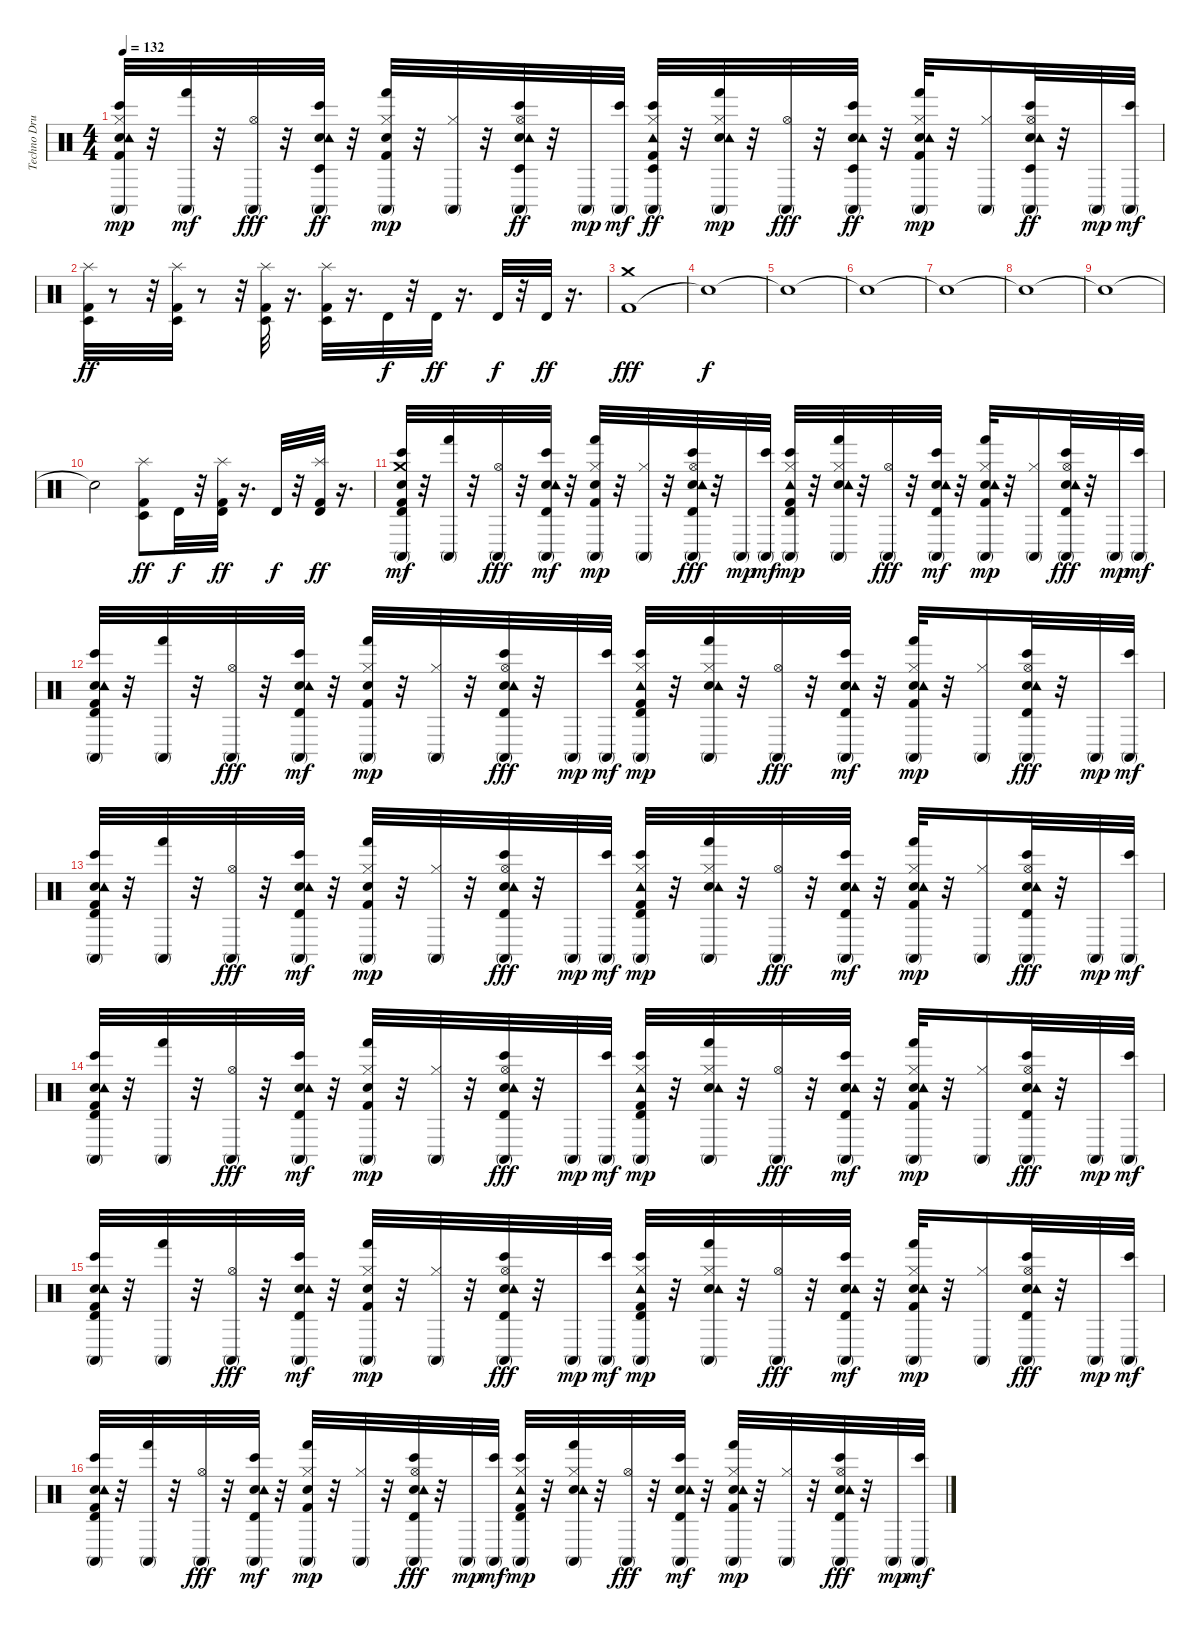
\track ("Techno Drums" "Techno Dru") {instrument percussion}
\staff {score}
\articulation defaults
\ts (4 4)
\tempo 132
\clef neutral
\ks c
("Kick (hit) 2" "Hand Clap (hit)" "Tambourine (hit)" "Conga high (mute)" "Bongo High (hit)" "Hi-Hat (closed)").32{dy mp} r.32 ("Conga high (mute)" "Hand (hit)").32{dy mf} r.32 ("Conga high (mute)" "Hi-Hat (open)").32{dy fff} r.32 ("Hand Clap (hit)" "Tambourine (hit)" "Conga high (mute)" "Bongo High (hit)" "Timbale low (hit)").32{dy ff} r.32 ("Kick (hit) 2" "Hand Clap (hit)" "Conga high (mute)" "Hand (hit)" "Hi-Hat (closed)").32{dy mp} r.32 ("Conga high (mute)" "Hi-Hat (closed)").32 r.32 ("Hand Clap (hit)" "Tambourine (hit)" "Conga high (mute)" "Bongo High (hit)" "Hi-Hat (open)" "Timbale low (hit)").32{dy ff} r.32 "Conga high (mute)".32{dy mp} ("Conga high (mute)" "Bongo High (hit)").32{dy mf} ("Kick (hit) 2" "Tambourine (hit)" "Conga high (mute)" "Bongo High (hit)" "Hi-Hat (closed)" "Timbale low (hit)").32{dy ff} r.32 ("Hand Clap (hit)" "Tambourine (hit)" "Conga high (mute)" "Hand (hit)" "Hi-Hat (closed)").32{dy mp} r.32 ("Conga high (mute)" "Hi-Hat (open)").32{dy fff} r.32 ("Hand Clap (hit)" "Tambourine (hit)" "Conga high (mute)" "Bongo High (hit)" "Timbale low (hit)").32{dy ff} r.32 ("Kick (hit) 2" "Hand Clap (hit)" "Tambourine (hit)" "Conga high (mute)" "Hand (hit)" "Hi-Hat (closed)").32{dy mp} r.32 ("Conga high (mute)" "Hi-Hat (closed)").16 ("Hand Clap (hit)" "Tambourine (hit)" "Conga high (mute)" "Bongo High (hit)" "Hi-Hat (open)" "Timbale low (hit)").32{dy ff} r.32 "Conga high (mute)".32{dy mp} ("Conga high (mute)" "Bongo High (hit)").32{dy mf} |
("Kick (hit) 2" "Timbale low (hit)" "Splash (hit)").32{dy ff} r.8 r.32 ("Kick (hit) 2" "Timbale low (hit)" "Splash (hit)").32 r.8 r.32 ("Kick (hit) 2" "Timbale low (hit)" "Splash (hit)").32 r.16{d} ("Timbale low (hit)" "Splash (hit)" "Kick (hit) 2").32 r.16{d} "Timbale high (hit)".32{dy f} r.32 "Timbale high (hit)".32{dy ff} r.16{d} "Timbale high (hit)".32{dy f} r.32 "Timbale high (hit)".32{dy ff} r.16{d} |
("Kick (hit) 2" "Crash medium (hit)").1{dy fff} |
"Snare (hit)"{t}.1{dy f} |
"Snare (hit)"{t}.1 |
"Snare (hit)"{t}.1 |
"Snare (hit)"{t}.1 |
"Snare (hit)"{t}.1 |
"Snare (hit)"{t}.1 |
"Snare (hit)"{t}.2 ("Timbale low (hit)" "Splash (hit)" "Kick (hit) 2").8{dy ff} "Timbale high (hit)".32{dy f} r.32 ("Timbale high (hit)" "Splash (hit)" "Kick (hit) 2").32{dy ff} r.16{d} "Timbale high (hit)".32{dy f} r.32 ("Timbale high (hit)" "Splash (hit)" "Kick (hit) 2").32{dy ff} r.16{d} |
("Kick (hit) 2" "Hand Clap (hit)" "Crash medium (hit)" "Conga high (mute)" "Bongo High (hit)" "Timbale high (hit)").32{dy mf} r.32 ("Conga high (mute)" "Hand (hit)").32 r.32 ("Conga high (mute)" "Hi-Hat (open)").32{dy fff} r.32 ("Hand Clap (hit)" "Tambourine (hit)" "Conga high (mute)" "Bongo High (hit)" "Timbale high (hit)").32{dy mf} r.32 ("Kick (hit) 2" "Hand Clap (hit)" "Conga high (mute)" "Hand (hit)" "Hi-Hat (closed)").32{dy mp} r.32 ("Conga high (mute)" "Hi-Hat (closed)").32 r.32 ("Hand Clap (hit)" "Tambourine (hit)" "Conga high (mute)" "Bongo High (hit)" "Timbale high (hit)" "Hi-Hat (open)").32{dy fff} r.32 "Conga high (mute)".32{dy mp} ("Conga high (mute)" "Bongo High (hit)").32{dy mf} ("Kick (hit) 2" "Tambourine (hit)" "Conga high (mute)" "Bongo High (hit)" "Timbale high (hit)" "Hi-Hat (closed)").32{dy mp} r.32 ("Hand Clap (hit)" "Tambourine (hit)" "Conga high (mute)" "Hand (hit)" "Hi-Hat (closed)").32 r.32 ("Conga high (mute)" "Hi-Hat (open)").32{dy fff} r.32 ("Hand Clap (hit)" "Tambourine (hit)" "Conga high (mute)" "Bongo High (hit)" "Timbale high (hit)").32{dy mf} r.32 ("Kick (hit) 2" "Hand Clap (hit)" "Tambourine (hit)" "Conga high (mute)" "Hand (hit)" "Hi-Hat (closed)").32{dy mp} r.32 ("Conga high (mute)" "Hi-Hat (closed)").16 ("Hand Clap (hit)" "Tambourine (hit)" "Conga high (mute)" "Bongo High (hit)" "Timbale high (hit)" "Hi-Hat (open)").32{dy fff} r.32 "Conga high (mute)".32{dy mp} ("Conga high (mute)" "Bongo High (hit)").32{dy mf} |
("Kick (hit) 2" "Hand Clap (hit)" "Tambourine (hit)" "Conga high (mute)" "Bongo High (hit)" "Timbale high (hit)").32 r.32 ("Conga high (mute)" "Hand (hit)").32 r.32 ("Conga high (mute)" "Hi-Hat (open)").32{dy fff} r.32 ("Hand Clap (hit)" "Tambourine (hit)" "Conga high (mute)" "Bongo High (hit)" "Timbale high (hit)").32{dy mf} r.32 ("Kick (hit) 2" "Hand Clap (hit)" "Conga high (mute)" "Hand (hit)" "Hi-Hat (closed)").32{dy mp} r.32 ("Conga high (mute)" "Hi-Hat (closed)").32 r.32 ("Hand Clap (hit)" "Tambourine (hit)" "Conga high (mute)" "Bongo High (hit)" "Timbale high (hit)" "Hi-Hat (open)").32{dy fff} r.32 "Conga high (mute)".32{dy mp} ("Conga high (mute)" "Bongo High (hit)").32{dy mf} ("Kick (hit) 2" "Tambourine (hit)" "Conga high (mute)" "Bongo High (hit)" "Timbale high (hit)" "Hi-Hat (closed)").32{dy mp} r.32 ("Hand Clap (hit)" "Tambourine (hit)" "Conga high (mute)" "Hand (hit)" "Hi-Hat (closed)").32 r.32 ("Conga high (mute)" "Hi-Hat (open)").32{dy fff} r.32 ("Hand Clap (hit)" "Tambourine (hit)" "Conga high (mute)" "Bongo High (hit)" "Timbale high (hit)").32{dy mf} r.32 ("Kick (hit) 2" "Hand Clap (hit)" "Tambourine (hit)" "Conga high (mute)" "Hand (hit)" "Hi-Hat (closed)").32{dy mp} r.32 ("Conga high (mute)" "Hi-Hat (closed)").16 ("Hand Clap (hit)" "Tambourine (hit)" "Conga high (mute)" "Bongo High (hit)" "Timbale high (hit)" "Hi-Hat (open)").32{dy fff} r.32 "Conga high (mute)".32{dy mp} ("Conga high (mute)" "Bongo High (hit)").32{dy mf} |
("Kick (hit) 2" "Hand Clap (hit)" "Tambourine (hit)" "Conga high (mute)" "Bongo High (hit)" "Timbale high (hit)").32 r.32 ("Conga high (mute)" "Hand (hit)").32 r.32 ("Conga high (mute)" "Hi-Hat (open)").32{dy fff} r.32 ("Hand Clap (hit)" "Tambourine (hit)" "Conga high (mute)" "Bongo High (hit)" "Timbale high (hit)").32{dy mf} r.32 ("Kick (hit) 2" "Hand Clap (hit)" "Conga high (mute)" "Hand (hit)" "Hi-Hat (closed)").32{dy mp} r.32 ("Conga high (mute)" "Hi-Hat (closed)").32 r.32 ("Hand Clap (hit)" "Tambourine (hit)" "Conga high (mute)" "Bongo High (hit)" "Timbale high (hit)" "Hi-Hat (open)").32{dy fff} r.32 "Conga high (mute)".32{dy mp} ("Conga high (mute)" "Bongo High (hit)").32{dy mf} ("Kick (hit) 2" "Tambourine (hit)" "Conga high (mute)" "Bongo High (hit)" "Timbale high (hit)" "Hi-Hat (closed)").32{dy mp} r.32 ("Hand Clap (hit)" "Tambourine (hit)" "Conga high (mute)" "Hand (hit)" "Hi-Hat (closed)").32 r.32 ("Conga high (mute)" "Hi-Hat (open)").32{dy fff} r.32 ("Hand Clap (hit)" "Tambourine (hit)" "Conga high (mute)" "Bongo High (hit)" "Timbale high (hit)").32{dy mf} r.32 ("Kick (hit) 2" "Hand Clap (hit)" "Tambourine (hit)" "Conga high (mute)" "Hand (hit)" "Hi-Hat (closed)").32{dy mp} r.32 ("Conga high (mute)" "Hi-Hat (closed)").16 ("Hand Clap (hit)" "Tambourine (hit)" "Conga high (mute)" "Bongo High (hit)" "Timbale high (hit)" "Hi-Hat (open)").32{dy fff} r.32 "Conga high (mute)".32{dy mp} ("Conga high (mute)" "Bongo High (hit)").32{dy mf} |
("Kick (hit) 2" "Hand Clap (hit)" "Tambourine (hit)" "Conga high (mute)" "Bongo High (hit)" "Timbale high (hit)").32 r.32 ("Conga high (mute)" "Hand (hit)").32 r.32 ("Conga high (mute)" "Hi-Hat (open)").32{dy fff} r.32 ("Hand Clap (hit)" "Tambourine (hit)" "Conga high (mute)" "Bongo High (hit)" "Timbale high (hit)").32{dy mf} r.32 ("Kick (hit) 2" "Hand Clap (hit)" "Conga high (mute)" "Hand (hit)" "Hi-Hat (closed)").32{dy mp} r.32 ("Conga high (mute)" "Hi-Hat (closed)").32 r.32 ("Hand Clap (hit)" "Tambourine (hit)" "Conga high (mute)" "Bongo High (hit)" "Timbale high (hit)" "Hi-Hat (open)").32{dy fff} r.32 "Conga high (mute)".32{dy mp} ("Conga high (mute)" "Bongo High (hit)").32{dy mf} ("Kick (hit) 2" "Tambourine (hit)" "Conga high (mute)" "Bongo High (hit)" "Timbale high (hit)" "Hi-Hat (closed)").32{dy mp} r.32 ("Hand Clap (hit)" "Tambourine (hit)" "Conga high (mute)" "Hand (hit)" "Hi-Hat (closed)").32 r.32 ("Conga high (mute)" "Hi-Hat (open)").32{dy fff} r.32 ("Hand Clap (hit)" "Tambourine (hit)" "Conga high (mute)" "Bongo High (hit)" "Timbale high (hit)").32{dy mf} r.32 ("Kick (hit) 2" "Hand Clap (hit)" "Tambourine (hit)" "Conga high (mute)" "Hand (hit)" "Hi-Hat (closed)").32{dy mp} r.32 ("Conga high (mute)" "Hi-Hat (closed)").16 ("Hand Clap (hit)" "Tambourine (hit)" "Conga high (mute)" "Bongo High (hit)" "Timbale high (hit)" "Hi-Hat (open)").32{dy fff} r.32 "Conga high (mute)".32{dy mp} ("Conga high (mute)" "Bongo High (hit)").32{dy mf} |
("Kick (hit) 2" "Hand Clap (hit)" "Tambourine (hit)" "Conga high (mute)" "Bongo High (hit)" "Timbale high (hit)").32 r.32 ("Conga high (mute)" "Hand (hit)").32 r.32 ("Conga high (mute)" "Hi-Hat (open)").32{dy fff} r.32 ("Hand Clap (hit)" "Tambourine (hit)" "Conga high (mute)" "Bongo High (hit)" "Timbale high (hit)").32{dy mf} r.32 ("Kick (hit) 2" "Hand Clap (hit)" "Conga high (mute)" "Hand (hit)" "Hi-Hat (closed)").32{dy mp} r.32 ("Conga high (mute)" "Hi-Hat (closed)").32 r.32 ("Hand Clap (hit)" "Tambourine (hit)" "Conga high (mute)" "Bongo High (hit)" "Timbale high (hit)" "Hi-Hat (open)").32{dy fff} r.32 "Conga high (mute)".32{dy mp} ("Conga high (mute)" "Bongo High (hit)").32{dy mf} ("Kick (hit) 2" "Tambourine (hit)" "Conga high (mute)" "Bongo High (hit)" "Timbale high (hit)" "Hi-Hat (closed)").32{dy mp} r.32 ("Hand Clap (hit)" "Tambourine (hit)" "Conga high (mute)" "Hand (hit)" "Hi-Hat (closed)").32 r.32 ("Conga high (mute)" "Hi-Hat (open)").32{dy fff} r.32 ("Hand Clap (hit)" "Tambourine (hit)" "Conga high (mute)" "Bongo High (hit)" "Timbale high (hit)").32{dy mf} r.32 ("Kick (hit) 2" "Hand Clap (hit)" "Tambourine (hit)" "Conga high (mute)" "Hand (hit)" "Hi-Hat (closed)").32{dy mp} r.32 ("Conga high (mute)" "Hi-Hat (closed)").16 ("Hand Clap (hit)" "Tambourine (hit)" "Conga high (mute)" "Bongo High (hit)" "Timbale high (hit)" "Hi-Hat (open)").32{dy fff} r.32 "Conga high (mute)".32{dy mp} ("Conga high (mute)" "Bongo High (hit)").32{dy mf} |
("Kick (hit) 2" "Hand Clap (hit)" "Tambourine (hit)" "Conga high (mute)" "Bongo High (hit)" "Timbale high (hit)").32 r.32 ("Conga high (mute)" "Hand (hit)").32 r.32 ("Conga high (mute)" "Hi-Hat (open)").32{dy fff} r.32 ("Hand Clap (hit)" "Tambourine (hit)" "Conga high (mute)" "Bongo High (hit)" "Timbale high (hit)").32{dy mf} r.32 ("Kick (hit) 2" "Hand Clap (hit)" "Conga high (mute)" "Hand (hit)" "Hi-Hat (closed)").32{dy mp} r.32 ("Conga high (mute)" "Hi-Hat (closed)").32 r.32 ("Hand Clap (hit)" "Tambourine (hit)" "Conga high (mute)" "Bongo High (hit)" "Timbale high (hit)" "Hi-Hat (open)").32{dy fff} r.32 "Conga high (mute)".32{dy mp} ("Conga high (mute)" "Bongo High (hit)").32{dy mf} ("Kick (hit) 2" "Tambourine (hit)" "Conga high (mute)" "Bongo High (hit)" "Timbale high (hit)" "Hi-Hat (closed)").32{dy mp} r.32 ("Hand Clap (hit)" "Tambourine (hit)" "Conga high (mute)" "Hand (hit)" "Hi-Hat (closed)").32 r.32 ("Conga high (mute)" "Hi-Hat (open)").32{dy fff} r.32 ("Hand Clap (hit)" "Tambourine (hit)" "Conga high (mute)" "Bongo High (hit)" "Timbale high (hit)").32{dy mf} r.32 ("Kick (hit) 2" "Hand Clap (hit)" "Tambourine (hit)" "Conga high (mute)" "Hand (hit)" "Hi-Hat (closed)").32{dy mp} r.32 ("Conga high (mute)" "Hi-Hat (closed)").32 r.32 ("Hand Clap (hit)" "Tambourine (hit)" "Conga high (mute)" "Bongo High (hit)" "Timbale high (hit)" "Hi-Hat (open)").32{dy fff} r.32 "Conga high (mute)".32{dy mp} ("Conga high (mute)" "Bongo High (hit)").32{dy mf}
